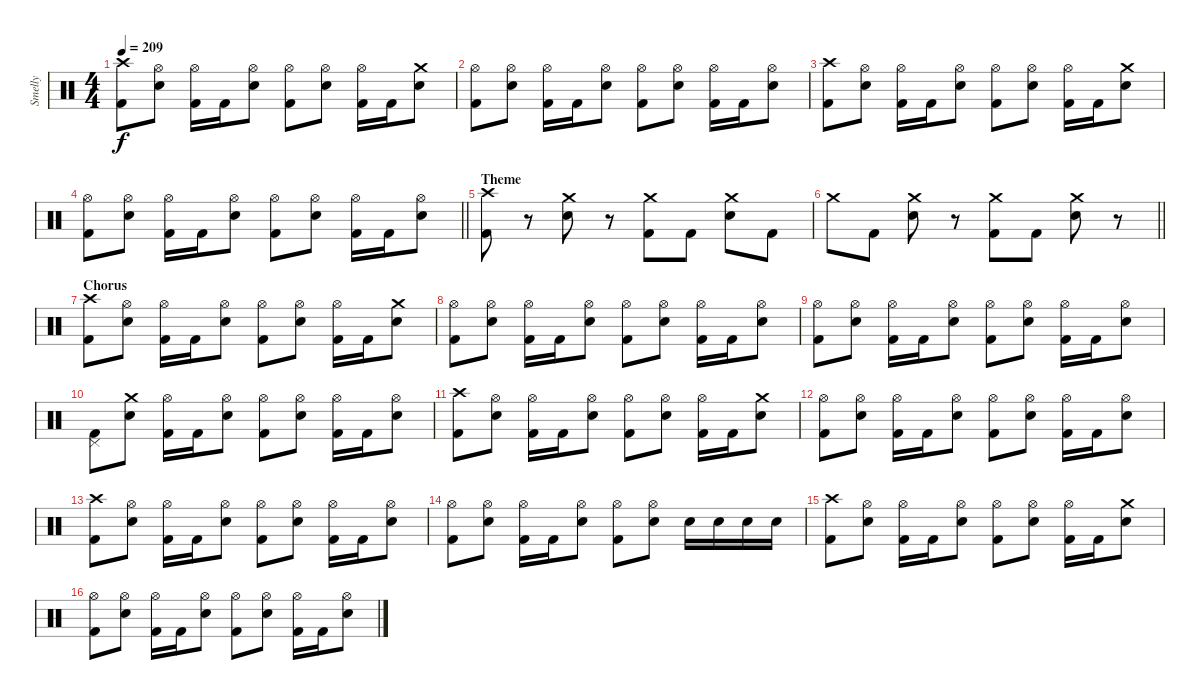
\track ("Smelly" "Smelly") {instrument percussion}
\staff {score}
\articulation defaults
\ts (4 4)
\tempo 209
\clef neutral
\ks c
("Crash high (hit)" "Kick (hit) 2").8{dy f} ("Hi-Hat (open)" "Electric Snare (hit)").8 ("Hi-Hat (open)" "Kick (hit) 2").16 "Kick (hit) 2".16 ("Hi-Hat (open)" "Electric Snare (hit)").8 ("Hi-Hat (open)" "Kick (hit) 2").8 ("Hi-Hat (open)" "Electric Snare (hit)").8 ("Hi-Hat (open)" "Kick (hit) 2").16 "Kick (hit) 2".16 ("Crash medium (hit)" "Electric Snare (hit)").8 |
("Hi-Hat (open)" "Kick (hit) 2").8 ("Hi-Hat (open)" "Electric Snare (hit)").8 ("Hi-Hat (open)" "Kick (hit) 2").16 "Kick (hit) 2".16 ("Hi-Hat (open)" "Electric Snare (hit)").8 ("Hi-Hat (open)" "Kick (hit) 2").8 ("Hi-Hat (open)" "Electric Snare (hit)").8 ("Hi-Hat (open)" "Kick (hit) 2").16 "Kick (hit) 2".16 ("Hi-Hat (open)" "Electric Snare (hit)").8 |
("Crash high (hit)" "Kick (hit) 2").8 ("Hi-Hat (open)" "Electric Snare (hit)").8 ("Hi-Hat (open)" "Kick (hit) 2").16 "Kick (hit) 2".16 ("Hi-Hat (open)" "Electric Snare (hit)").8 ("Hi-Hat (open)" "Kick (hit) 2").8 ("Hi-Hat (open)" "Electric Snare (hit)").8 ("Hi-Hat (open)" "Kick (hit) 2").16 "Kick (hit) 2".16 ("Crash medium (hit)" "Electric Snare (hit)").8 |
\barLineRight lightlight
("Hi-Hat (open)" "Kick (hit) 2").8 ("Hi-Hat (open)" "Electric Snare (hit)").8 ("Hi-Hat (open)" "Kick (hit) 2").16 "Kick (hit) 2".16 ("Hi-Hat (open)" "Electric Snare (hit)").8 ("Hi-Hat (open)" "Kick (hit) 2").8 ("Hi-Hat (open)" "Electric Snare (hit)").8 ("Hi-Hat (open)" "Kick (hit) 2").16 "Kick (hit) 2".16 ("Hi-Hat (open)" "Electric Snare (hit)").8 |
\section ("" "Theme")
("Crash high (hit)" "Kick (hit) 2").8 r.8 ("Crash medium (hit)" "Electric Snare (hit)").8 r.8 ("Crash medium (hit)" "Kick (hit) 2").8 "Kick (hit) 2".8 ("Crash medium (hit)" "Electric Snare (hit)").8 "Kick (hit) 2".8 |
\barLineRight lightlight "Crash medium (hit)".8 "Kick (hit) 2".8
("Crash medium (hit)" "Electric Snare (hit)").8 r.8 ("Crash medium (hit)" "Kick (hit) 2").8 "Kick (hit) 2".8 ("Crash medium (hit)" "Electric Snare (hit)").8 r.8 |
\section ("" "Chorus")
("Crash high (hit)" "Kick (hit) 2").8 ("Hi-Hat (open)" "Electric Snare (hit)").8 ("Hi-Hat (open)" "Kick (hit) 2").16 "Kick (hit) 2".16 ("Hi-Hat (open)" "Electric Snare (hit)").8 ("Hi-Hat (open)" "Kick (hit) 2").8 ("Hi-Hat (open)" "Electric Snare (hit)").8 ("Hi-Hat (open)" "Kick (hit) 2").16 "Kick (hit) 2".16 ("Crash medium (hit)" "Electric Snare (hit)").8 |
("Hi-Hat (open)" "Kick (hit) 2").8 ("Hi-Hat (open)" "Electric Snare (hit)").8 ("Hi-Hat (open)" "Kick (hit) 2").16 "Kick (hit) 2".16 ("Hi-Hat (open)" "Electric Snare (hit)").8 ("Hi-Hat (open)" "Kick (hit) 2").8 ("Hi-Hat (open)" "Electric Snare (hit)").8 ("Hi-Hat (open)" "Kick (hit) 2").16 "Kick (hit) 2".16 ("Hi-Hat (open)" "Electric Snare (hit)").8 |
("Hi-Hat (open)" "Kick (hit) 2").8 ("Hi-Hat (open)" "Electric Snare (hit)").8 ("Hi-Hat (open)" "Kick (hit) 2").16 "Kick (hit) 2".16 ("Hi-Hat (open)" "Electric Snare (hit)").8 ("Hi-Hat (open)" "Kick (hit) 2").8 ("Hi-Hat (open)" "Electric Snare (hit)").8 ("Hi-Hat (open)" "Kick (hit) 2").16 "Kick (hit) 2".16 ("Hi-Hat (open)" "Electric Snare (hit)").8 |
("Pedal Hi-Hat (hit)" "Kick (hit) 2").8 ("Crash medium (hit)" "Electric Snare (hit)").8 ("Hi-Hat (open)" "Kick (hit) 2").16 "Kick (hit) 2".16 ("Hi-Hat (open)" "Electric Snare (hit)").8 ("Hi-Hat (open)" "Kick (hit) 2").8 ("Hi-Hat (open)" "Electric Snare (hit)").8 ("Hi-Hat (open)" "Kick (hit) 2").16 "Kick (hit) 2".16 ("Hi-Hat (open)" "Electric Snare (hit)").8 |
("Crash high (hit)" "Kick (hit) 2").8 ("Hi-Hat (open)" "Electric Snare (hit)").8 ("Hi-Hat (open)" "Kick (hit) 2").16 "Kick (hit) 2".16 ("Hi-Hat (open)" "Electric Snare (hit)").8 ("Hi-Hat (open)" "Kick (hit) 2").8 ("Hi-Hat (open)" "Electric Snare (hit)").8 ("Hi-Hat (open)" "Kick (hit) 2").16 "Kick (hit) 2".16 ("Crash medium (hit)" "Electric Snare (hit)").8 |
("Hi-Hat (open)" "Kick (hit) 2").8 ("Hi-Hat (open)" "Electric Snare (hit)").8 ("Hi-Hat (open)" "Kick (hit) 2").16 "Kick (hit) 2".16 ("Hi-Hat (open)" "Electric Snare (hit)").8 ("Hi-Hat (open)" "Kick (hit) 2").8 ("Hi-Hat (open)" "Electric Snare (hit)").8 ("Hi-Hat (open)" "Kick (hit) 2").16 "Kick (hit) 2".16 ("Hi-Hat (open)" "Electric Snare (hit)").8 |
("Crash high (hit)" "Kick (hit) 2").8 ("Hi-Hat (open)" "Electric Snare (hit)").8 ("Hi-Hat (open)" "Kick (hit) 2").16 "Kick (hit) 2".16 ("Hi-Hat (open)" "Electric Snare (hit)").8 ("Hi-Hat (open)" "Kick (hit) 2").8 ("Hi-Hat (open)" "Electric Snare (hit)").8 ("Hi-Hat (open)" "Kick (hit) 2").16 "Kick (hit) 2".16 ("Hi-Hat (open)" "Electric Snare (hit)").8 |
("Hi-Hat (open)" "Kick (hit) 2").8 ("Hi-Hat (open)" "Electric Snare (hit)").8 ("Hi-Hat (open)" "Kick (hit) 2").16 "Kick (hit) 2".16 ("Hi-Hat (open)" "Electric Snare (hit)").8 ("Hi-Hat (open)" "Kick (hit) 2").8 ("Hi-Hat (open)" "Electric Snare (hit)").8 "Electric Snare (hit)".16 "Electric Snare (hit)".16 "Electric Snare (hit)".16 "Electric Snare (hit)".16 |
("Crash high (hit)" "Kick (hit) 2").8 ("Hi-Hat (open)" "Electric Snare (hit)").8 ("Hi-Hat (open)" "Kick (hit) 2").16 "Kick (hit) 2".16 ("Hi-Hat (open)" "Electric Snare (hit)").8 ("Hi-Hat (open)" "Kick (hit) 2").8 ("Hi-Hat (open)" "Electric Snare (hit)").8 ("Hi-Hat (open)" "Kick (hit) 2").16 "Kick (hit) 2".16 ("Crash medium (hit)" "Electric Snare (hit)").8 |
("Hi-Hat (open)" "Kick (hit) 2").8 ("Hi-Hat (open)" "Electric Snare (hit)").8 ("Hi-Hat (open)" "Kick (hit) 2").16 "Kick (hit) 2".16 ("Hi-Hat (open)" "Electric Snare (hit)").8 ("Hi-Hat (open)" "Kick (hit) 2").8 ("Hi-Hat (open)" "Electric Snare (hit)").8 ("Hi-Hat (open)" "Kick (hit) 2").16 "Kick (hit) 2".16 ("Hi-Hat (open)" "Electric Snare (hit)").8
